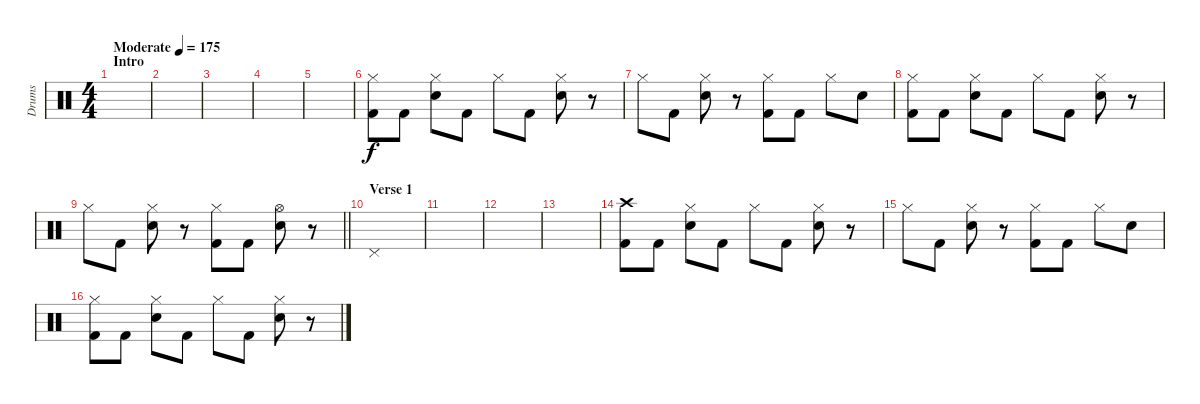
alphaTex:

\track ("Drums" "Drums") {instrument percussion}
\staff {score}
\articulation defaults
\ts (4 4)
\section ("" "Intro")
\tempo (175 "Moderate")
\clef neutral
\ks c
|
|
|
|
|
("Hi-Hat (closed)" "Kick (hit) 2").8 "Kick (hit) 2".8 ("Hi-Hat (closed)" "Snare (hit) 2").8 "Kick (hit) 2".8 "Hi-Hat (closed)".8 "Kick (hit) 2".8 ("Hi-Hat (closed)" "Snare (hit) 2").8 r.8 |
"Hi-Hat (closed)".8 "Kick (hit) 2".8 ("Hi-Hat (closed)" "Snare (hit) 2").8 r.8 ("Hi-Hat (closed)" "Kick (hit) 2").8 "Kick (hit) 2".8 "Hi-Hat (closed)".8 "Snare (hit) 2".8 |
("Hi-Hat (closed)" "Kick (hit) 2").8 "Kick (hit) 2".8 ("Hi-Hat (closed)" "Snare (hit) 2").8 "Kick (hit) 2".8 "Hi-Hat (closed)".8 "Kick (hit) 2".8 ("Hi-Hat (closed)" "Snare (hit) 2").8 r.8 |
\barLineRight lightlight "Hi-Hat (closed)".8 "Kick (hit) 2".8
("Hi-Hat (closed)" "Snare (hit) 2").8 r.8 ("Hi-Hat (closed)" "Kick (hit) 2").8 "Kick (hit) 2".8 ("Hi-Hat (open)" "Snare (hit) 2").8 r.8 |
\section ("" "Verse 1")
"Pedal Hi-Hat (hit)".1 |
|
|
|
("Crash high (hit)" "Kick (hit) 2").8 "Kick (hit) 2".8 ("Hi-Hat (closed)" "Snare (hit) 2").8 "Kick (hit) 2".8 "Hi-Hat (closed)".8 "Kick (hit) 2".8 ("Hi-Hat (closed)" "Snare (hit) 2").8 r.8 |
"Hi-Hat (closed)".8 "Kick (hit) 2".8 ("Hi-Hat (closed)" "Snare (hit) 2").8 r.8 ("Hi-Hat (closed)" "Kick (hit) 2").8 "Kick (hit) 2".8 "Hi-Hat (closed)".8 "Snare (hit) 2".8 |
("Hi-Hat (closed)" "Kick (hit) 2").8 "Kick (hit) 2".8 ("Hi-Hat (closed)" "Snare (hit) 2").8 "Kick (hit) 2".8 "Hi-Hat (closed)".8 "Kick (hit) 2".8 ("Hi-Hat (closed)" "Snare (hit) 2").8 r.8
